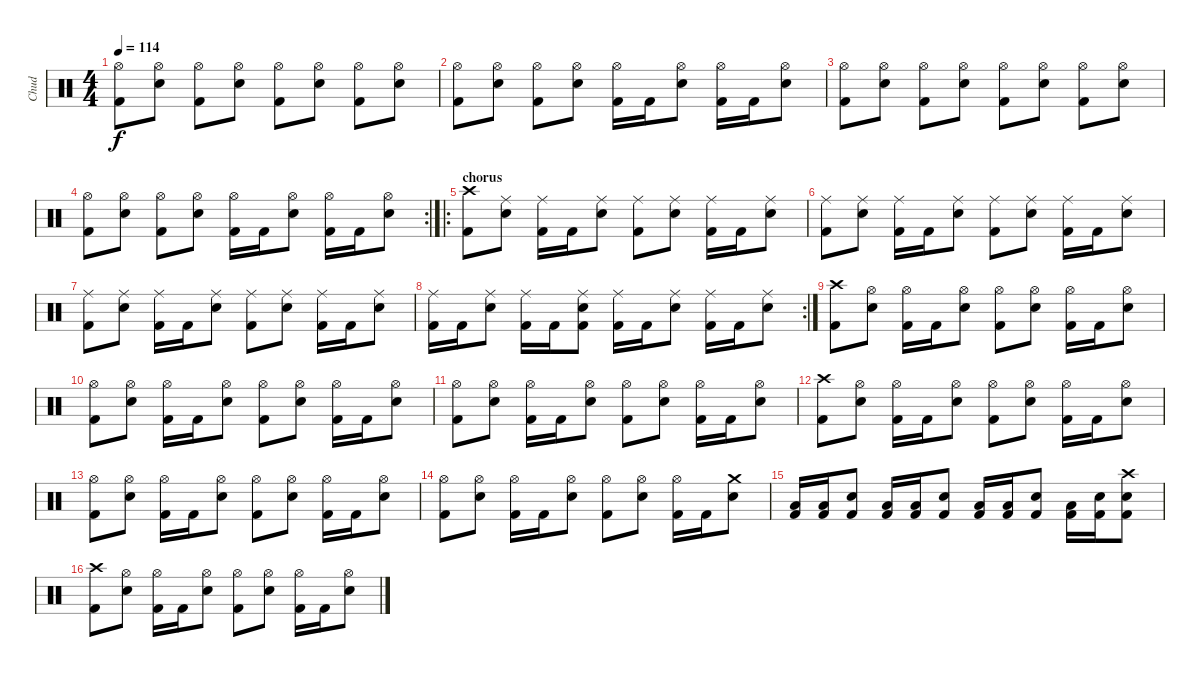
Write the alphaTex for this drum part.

\track ("Chud" "Chud") {instrument percussion}
\staff {score}
\articulation defaults
\ts (4 4)
\tempo 114
\clef neutral
\ks c
("Hi-Hat (open)" "Kick (hit) 2").8{dy f} ("Hi-Hat (open)" "Electric Snare (hit)").8 ("Hi-Hat (open)" "Kick (hit) 2").8 ("Hi-Hat (open)" "Electric Snare (hit)").8 ("Hi-Hat (open)" "Kick (hit) 2").8 ("Hi-Hat (open)" "Electric Snare (hit)").8 ("Hi-Hat (open)" "Kick (hit) 2").8 ("Hi-Hat (open)" "Electric Snare (hit)").8 |
("Hi-Hat (open)" "Kick (hit) 2").8 ("Hi-Hat (open)" "Electric Snare (hit)").8 ("Hi-Hat (open)" "Kick (hit) 2").8 ("Hi-Hat (open)" "Electric Snare (hit)").8 ("Hi-Hat (open)" "Kick (hit) 2").16 "Kick (hit) 2".16 ("Hi-Hat (open)" "Electric Snare (hit)").8 ("Hi-Hat (open)" "Kick (hit) 2").16 "Kick (hit) 2".16 ("Hi-Hat (open)" "Electric Snare (hit)").8 |
("Hi-Hat (open)" "Kick (hit) 2").8 ("Hi-Hat (open)" "Electric Snare (hit)").8 ("Hi-Hat (open)" "Kick (hit) 2").8 ("Hi-Hat (open)" "Electric Snare (hit)").8 ("Hi-Hat (open)" "Kick (hit) 2").8 ("Hi-Hat (open)" "Electric Snare (hit)").8 ("Hi-Hat (open)" "Kick (hit) 2").8 ("Hi-Hat (open)" "Electric Snare (hit)").8 |
\rc 2
("Hi-Hat (open)" "Kick (hit) 2").8 ("Hi-Hat (open)" "Electric Snare (hit)").8 ("Hi-Hat (open)" "Kick (hit) 2").8 ("Hi-Hat (open)" "Electric Snare (hit)").8 ("Hi-Hat (open)" "Kick (hit) 2").16 "Kick (hit) 2".16 ("Hi-Hat (open)" "Electric Snare (hit)").8 ("Hi-Hat (open)" "Kick (hit) 2").16 "Kick (hit) 2".16 ("Hi-Hat (open)" "Electric Snare (hit)").8 |
\ro
\section ("" "chorus")
("Crash high (hit)" "Kick (hit) 2").8 ("Ride (middle)" "Electric Snare (hit)").8 ("Ride (middle)" "Kick (hit) 2").16 "Kick (hit) 2".16 ("Ride (middle)" "Electric Snare (hit)").8 ("Ride (middle)" "Kick (hit) 2").8 ("Ride (middle)" "Electric Snare (hit)").8 ("Ride (middle)" "Kick (hit) 2").16 "Kick (hit) 2".16 ("Ride (middle)" "Electric Snare (hit)").8 |
("Ride (middle)" "Kick (hit) 2").8 ("Ride (middle)" "Electric Snare (hit)").8 ("Ride (middle)" "Kick (hit) 2").16 "Kick (hit) 2".16 ("Ride (middle)" "Electric Snare (hit)").8 ("Ride (middle)" "Kick (hit) 2").8 ("Ride (middle)" "Electric Snare (hit)").8 ("Ride (middle)" "Kick (hit) 2").16 "Kick (hit) 2".16 ("Ride (middle)" "Electric Snare (hit)").8 |
("Ride (middle)" "Kick (hit) 2").8 ("Ride (middle)" "Electric Snare (hit)").8 ("Ride (middle)" "Kick (hit) 2").16 "Kick (hit) 2".16 ("Ride (middle)" "Electric Snare (hit)").8 ("Ride (middle)" "Kick (hit) 2").8 ("Ride (middle)" "Electric Snare (hit)").8 ("Ride (middle)" "Kick (hit) 2").16 "Kick (hit) 2".16 ("Ride (middle)" "Electric Snare (hit)").8 |
\rc 2
("Ride (middle)" "Kick (hit) 2").16 "Kick (hit) 2".16 ("Ride (middle)" "Electric Snare (hit)").8 ("Ride (middle)" "Kick (hit) 2").16 "Kick (hit) 2".16 ("Ride (middle)" "Electric Snare (hit)" "Kick (hit) 2").8 ("Ride (middle)" "Kick (hit) 2").16 "Kick (hit) 2".16 ("Ride (middle)" "Electric Snare (hit)").8 ("Ride (middle)" "Kick (hit) 2").16 "Kick (hit) 2".16 ("Ride (middle)" "Electric Snare (hit)").8 |
("Crash high (hit)" "Kick (hit) 2").8 ("Hi-Hat (open)" "Electric Snare (hit)").8 ("Hi-Hat (open)" "Kick (hit) 2").16 "Kick (hit) 2".16 ("Hi-Hat (open)" "Electric Snare (hit)").8 ("Hi-Hat (open)" "Kick (hit) 2").8 ("Hi-Hat (open)" "Electric Snare (hit)").8 ("Hi-Hat (open)" "Kick (hit) 2").16 "Kick (hit) 2".16 ("Hi-Hat (open)" "Electric Snare (hit)").8 |
("Hi-Hat (open)" "Kick (hit) 2").8 ("Hi-Hat (open)" "Electric Snare (hit)").8 ("Hi-Hat (open)" "Kick (hit) 2").16 "Kick (hit) 2".16 ("Hi-Hat (open)" "Electric Snare (hit)").8 ("Hi-Hat (open)" "Kick (hit) 2").8 ("Hi-Hat (open)" "Electric Snare (hit)").8 ("Hi-Hat (open)" "Kick (hit) 2").16 "Kick (hit) 2".16 ("Hi-Hat (open)" "Electric Snare (hit)").8 |
("Hi-Hat (open)" "Kick (hit) 2").8 ("Hi-Hat (open)" "Electric Snare (hit)").8 ("Hi-Hat (open)" "Kick (hit) 2").16 "Kick (hit) 2".16 ("Hi-Hat (open)" "Electric Snare (hit)").8 ("Hi-Hat (open)" "Kick (hit) 2").8 ("Hi-Hat (open)" "Electric Snare (hit)").8 ("Hi-Hat (open)" "Kick (hit) 2").16 "Kick (hit) 2".16 ("Hi-Hat (open)" "Electric Snare (hit)").8 |
("Crash high (hit)" "Kick (hit) 2").8 ("Hi-Hat (open)" "Electric Snare (hit)").8 ("Hi-Hat (open)" "Kick (hit) 2").16 "Kick (hit) 2".16 ("Hi-Hat (open)" "Electric Snare (hit)").8 ("Hi-Hat (open)" "Kick (hit) 2").8 ("Hi-Hat (open)" "Electric Snare (hit)").8 ("Hi-Hat (open)" "Kick (hit) 2").16 "Kick (hit) 2".16 ("Hi-Hat (open)" "Electric Snare (hit)").8 |
("Hi-Hat (open)" "Kick (hit) 2").8 ("Hi-Hat (open)" "Electric Snare (hit)").8 ("Hi-Hat (open)" "Kick (hit) 2").16 "Kick (hit) 2".16 ("Hi-Hat (open)" "Electric Snare (hit)").8 ("Hi-Hat (open)" "Kick (hit) 2").8 ("Hi-Hat (open)" "Electric Snare (hit)").8 ("Hi-Hat (open)" "Kick (hit) 2").16 "Kick (hit) 2".16 ("Hi-Hat (open)" "Electric Snare (hit)").8 |
("Hi-Hat (open)" "Kick (hit) 2").8 ("Hi-Hat (open)" "Electric Snare (hit)").8 ("Hi-Hat (open)" "Kick (hit) 2").16 "Kick (hit) 2".16 ("Hi-Hat (open)" "Electric Snare (hit)").8 ("Hi-Hat (open)" "Kick (hit) 2").8 ("Hi-Hat (open)" "Electric Snare (hit)").8 ("Hi-Hat (open)" "Kick (hit) 2").16 "Kick (hit) 2".16 ("Crash medium (hit)" "Electric Snare (hit)").8 |
("Low Tom (hit)" "Kick (hit) 2").16 ("Low Tom (hit)" "Kick (hit) 2").16 ("Electric Snare (hit)" "Kick (hit) 2").8 ("Low Tom (hit)" "Kick (hit) 2").16 ("Low Tom (hit)" "Kick (hit) 2").16 ("Electric Snare (hit)" "Kick (hit) 2").8 ("Low Tom (hit)" "Kick (hit) 2").16 ("Low Tom (hit)" "Kick (hit) 2").16 ("Electric Snare (hit)" "Kick (hit) 2").8 ("Low Tom (hit)" "Kick (hit) 2").16 ("Electric Snare (hit)" "Kick (hit) 2").16 ("Crash high (hit)" "Electric Snare (hit)" "Kick (hit) 2").8 |
("Crash high (hit)" "Kick (hit) 2").8 ("Hi-Hat (open)" "Electric Snare (hit)").8 ("Hi-Hat (open)" "Kick (hit) 2").16 "Kick (hit) 2".16 ("Hi-Hat (open)" "Electric Snare (hit)").8 ("Hi-Hat (open)" "Kick (hit) 2").8 ("Hi-Hat (open)" "Electric Snare (hit)").8 ("Hi-Hat (open)" "Kick (hit) 2").16 "Kick (hit) 2".16 ("Hi-Hat (open)" "Electric Snare (hit)").8
